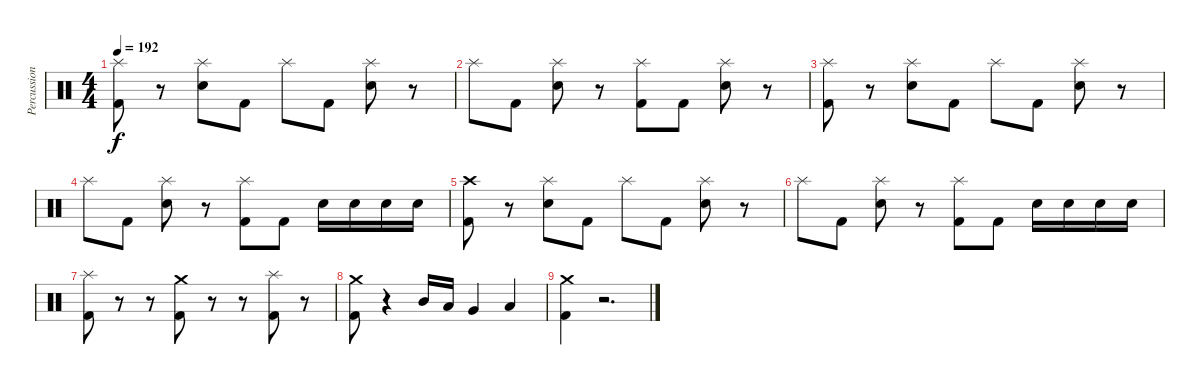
\track ("Percussion" "Percussion") {instrument percussion}
\staff {score}
\articulation defaults
\ts (4 4)
\tempo 192
\clef neutral
\ks c
("Splash (hit)" "Kick (hit) 2").8{dy f} r.8 ("Splash (hit)" "Electric Snare (hit)").8 "Kick (hit) 2".8 "Splash (hit)".8 "Kick (hit) 2".8 ("Splash (hit)" "Electric Snare (hit)").8 r.8 |
"Splash (hit)".8 "Kick (hit) 2".8 ("Splash (hit)" "Electric Snare (hit)").8 r.8 ("Splash (hit)" "Kick (hit) 2").8 "Kick (hit) 2".8 ("Splash (hit)" "Electric Snare (hit)").8 r.8 |
("Splash (hit)" "Kick (hit) 2").8 r.8 ("Splash (hit)" "Electric Snare (hit)").8 "Kick (hit) 2".8 "Splash (hit)".8 "Kick (hit) 2".8 ("Splash (hit)" "Electric Snare (hit)").8 r.8 |
"Splash (hit)".8 "Kick (hit) 2".8 ("Splash (hit)" "Electric Snare (hit)").8 r.8 ("Splash (hit)" "Kick (hit) 2").8 "Kick (hit) 2".8 "Electric Snare (hit)".16 "Electric Snare (hit)".16 "Electric Snare (hit)".16 "Electric Snare (hit)".16 |
("Crash high (hit)" "Kick (hit) 2").8 r.8 ("Splash (hit)" "Electric Snare (hit)").8 "Kick (hit) 2".8 "Splash (hit)".8 "Kick (hit) 2".8 ("Splash (hit)" "Electric Snare (hit)").8 r.8 |
"Splash (hit)".8 "Kick (hit) 2".8 ("Splash (hit)" "Electric Snare (hit)").8 r.8 ("Splash (hit)" "Kick (hit) 2").8 "Kick (hit) 2".8 "Electric Snare (hit)".16 "Electric Snare (hit)".16 "Electric Snare (hit)".16 "Electric Snare (hit)".16 |
("Splash (hit)" "Kick (hit) 2").8 r.8 r.8 ("Crash medium (hit)" "Kick (hit) 2").8 r.8 r.8 ("Splash (hit)" "Kick (hit) 2").8 r.8 |
("Crash medium (hit)" "Kick (hit) 2").8 r.4 "Mid Tom (hit)".16 "Low Tom (hit)".16 "Very Low Tom (hit)".4 "Low Floor Tom (hit)".4 |
("Crash medium (hit)" "Kick (hit) 2").4 r.2{d}
